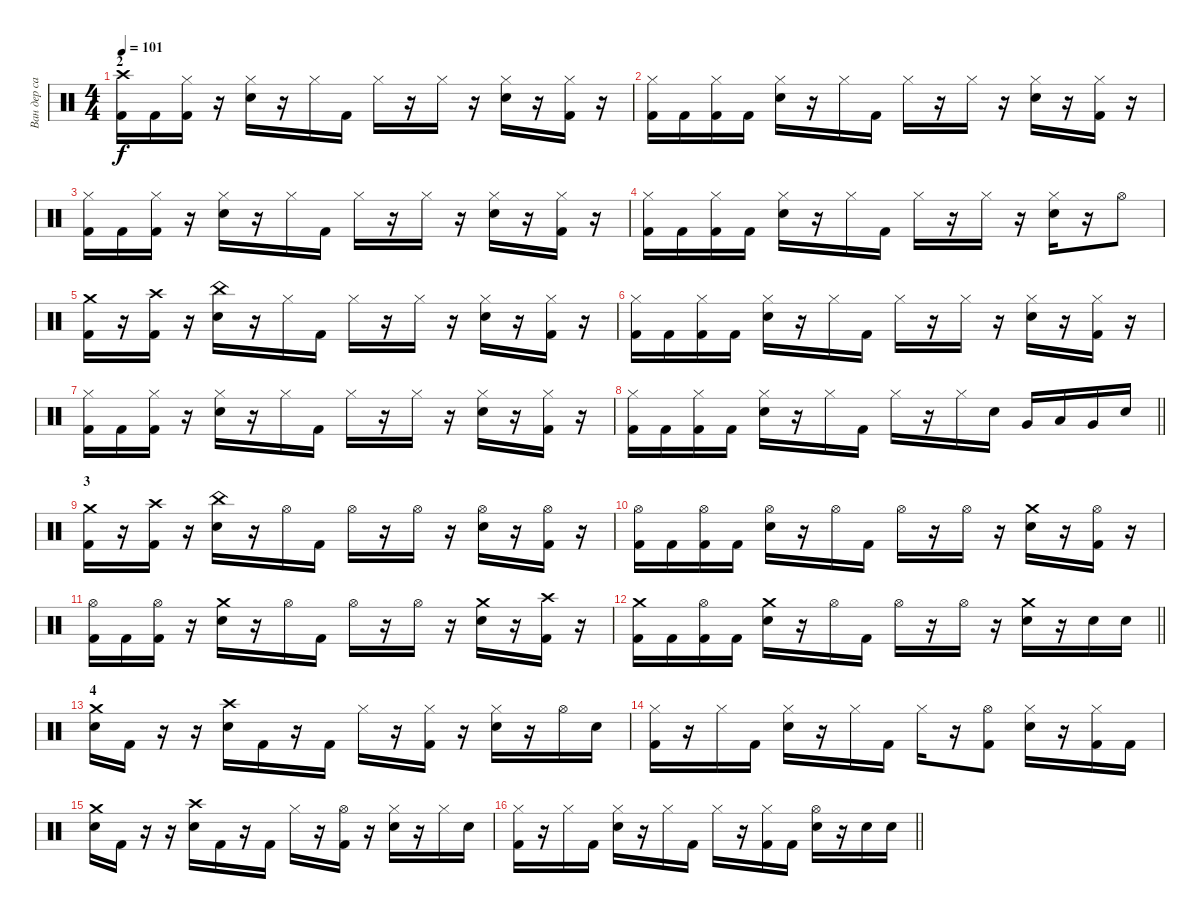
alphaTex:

\track ("Ван дер сар" "Ван дер са") {instrument percussion}
\staff {score}
\articulation defaults
\ts (4 4)
\section ("" "2")
\tempo 101
\clef neutral
\ks c
("Crash high (hit)" "Kick (hit) 2").16{dy f} "Kick (hit) 2".16 ("Hi-Hat (closed)" "Kick (hit) 2").16 r.16 ("Hi-Hat (closed)" "Snare (hit) 2").16 r.16 "Hi-Hat (closed)".16 "Kick (hit) 2".16 "Hi-Hat (closed)".16 r.16 "Hi-Hat (closed)".16 r.16 ("Hi-Hat (closed)" "Snare (hit) 2").16 r.16 ("Hi-Hat (closed)" "Kick (hit) 2").16 r.16 |
("Hi-Hat (closed)" "Kick (hit) 2").16 "Kick (hit) 2".16 ("Hi-Hat (closed)" "Kick (hit) 2").16 "Kick (hit) 2".16 ("Hi-Hat (closed)" "Snare (hit) 2").16 r.16 "Hi-Hat (closed)".16 "Kick (hit) 2".16 "Hi-Hat (closed)".16 r.16 "Hi-Hat (closed)".16 r.16 ("Hi-Hat (closed)" "Snare (hit) 2").16 r.16 ("Hi-Hat (closed)" "Kick (hit) 2").16 r.16 |
("Hi-Hat (closed)" "Kick (hit) 2").16 "Kick (hit) 2".16 ("Hi-Hat (closed)" "Kick (hit) 2").16 r.16 ("Hi-Hat (closed)" "Snare (hit) 2").16 r.16 "Hi-Hat (closed)".16 "Kick (hit) 2".16 "Hi-Hat (closed)".16 r.16 "Hi-Hat (closed)".16 r.16 ("Hi-Hat (closed)" "Snare (hit) 2").16 r.16 ("Hi-Hat (closed)" "Kick (hit) 2").16 r.16 |
("Hi-Hat (closed)" "Kick (hit) 2").16 "Kick (hit) 2".16 ("Hi-Hat (closed)" "Kick (hit) 2").16 "Kick (hit) 2".16 ("Hi-Hat (closed)" "Snare (hit) 2").16 r.16 "Hi-Hat (closed)".16 "Kick (hit) 2".16 "Hi-Hat (closed)".16 r.16 "Hi-Hat (closed)".16 r.16 ("Hi-Hat (closed)" "Snare (hit) 2").16 r.16 "Hi-Hat (open)".8 |
("Crash medium (hit)" "Kick (hit) 2").16 r.16 ("Crash high (hit)" "Kick (hit) 2").16 r.16 ("China (hit)" "Snare (hit) 2").16 r.16 "Hi-Hat (closed)".16 "Kick (hit) 2".16 "Hi-Hat (closed)".16 r.16 "Hi-Hat (closed)".16 r.16 ("Hi-Hat (closed)" "Snare (hit) 2").16 r.16 ("Hi-Hat (closed)" "Kick (hit) 2").16 r.16 |
("Hi-Hat (closed)" "Kick (hit) 2").16 "Kick (hit) 2".16 ("Hi-Hat (closed)" "Kick (hit) 2").16 "Kick (hit) 2".16 ("Hi-Hat (closed)" "Snare (hit) 2").16 r.16 "Hi-Hat (closed)".16 "Kick (hit) 2".16 "Hi-Hat (closed)".16 r.16 "Hi-Hat (closed)".16 r.16 ("Hi-Hat (closed)" "Snare (hit) 2").16 r.16 ("Hi-Hat (closed)" "Kick (hit) 2").16 r.16 |
("Hi-Hat (closed)" "Kick (hit) 2").16 "Kick (hit) 2".16 ("Hi-Hat (closed)" "Kick (hit) 2").16 r.16 ("Hi-Hat (closed)" "Snare (hit) 2").16 r.16 "Hi-Hat (closed)".16 "Kick (hit) 2".16 "Hi-Hat (closed)".16 r.16 "Hi-Hat (closed)".16 r.16 ("Hi-Hat (closed)" "Snare (hit) 2").16 r.16 ("Hi-Hat (closed)" "Kick (hit) 2").16 r.16 |
\barLineRight lightlight
("Hi-Hat (closed)" "Kick (hit) 2").16 "Kick (hit) 2".16 ("Hi-Hat (closed)" "Kick (hit) 2").16 "Kick (hit) 2".16 ("Hi-Hat (closed)" "Snare (hit) 2").16 r.16 "Hi-Hat (closed)".16 "Kick (hit) 2".16 "Hi-Hat (closed)".16 r.16 "Hi-Hat (closed)".16 "Snare (hit) 2".16 "Very Low Tom (hit)".16 "Low Tom (hit)".16 "Very Low Tom (hit)".16 "Snare (hit) 2".16 |
\section ("" "3")
("Crash medium (hit)" "Kick (hit) 2").16 r.16 ("Crash high (hit)" "Kick (hit) 2").16 r.16 ("China (hit)" "Snare (hit) 2").16 r.16 "Hi-Hat (open)".16 "Kick (hit) 2".16 "Hi-Hat (open)".16 r.16 "Hi-Hat (open)".16 r.16 ("Hi-Hat (open)" "Snare (hit) 2").16 r.16 ("Hi-Hat (open)" "Kick (hit) 2").16 r.16 |
("Hi-Hat (open)" "Kick (hit) 2").16 "Kick (hit) 2".16 ("Hi-Hat (open)" "Kick (hit) 2").16 "Kick (hit) 2".16 ("Hi-Hat (open)" "Snare (hit) 2").16 r.16 "Hi-Hat (open)".16 "Kick (hit) 2".16 "Hi-Hat (open)".16 r.16 "Hi-Hat (open)".16 r.16 ("Crash medium (hit)" "Snare (hit) 2").16 r.16 ("Hi-Hat (open)" "Kick (hit) 2").16 r.16 |
("Hi-Hat (open)" "Kick (hit) 2").16 "Kick (hit) 2".16 ("Hi-Hat (open)" "Kick (hit) 2").16 r.16 ("Crash medium (hit)" "Snare (hit) 2").16 r.16 "Hi-Hat (open)".16 "Kick (hit) 2".16 "Hi-Hat (open)".16 r.16 "Hi-Hat (open)".16 r.16 ("Crash medium (hit)" "Snare (hit) 2").16 r.16 ("Crash high (hit)" "Kick (hit) 2").16 r.16 |
\barLineRight lightlight
("Crash medium (hit)" "Kick (hit) 2").16 "Kick (hit) 2".16 ("Hi-Hat (open)" "Kick (hit) 2").16 "Kick (hit) 2".16 ("Crash medium (hit)" "Snare (hit) 2").16 r.16 "Hi-Hat (open)".16 "Kick (hit) 2".16 "Hi-Hat (open)".16 r.16 "Hi-Hat (open)".16 r.16 ("Crash medium (hit)" "Snare (hit) 2").16 r.16 "Snare (hit) 2".16 "Snare (hit) 2".16 |
\section ("" "4")
("Crash medium (hit)" "Snare (hit) 2").16 "Kick (hit) 2".16 r.16 r.16 ("Crash high (hit)" "Snare (hit) 2").16 "Kick (hit) 2".16 r.16 "Kick (hit) 2".16 "Hi-Hat (closed)".16 r.16 ("Hi-Hat (closed)" "Kick (hit) 2").16 r.16 ("Hi-Hat (closed)" "Snare (hit) 2").16 r.16 "Hi-Hat (open)".16 "Snare (hit) 2".16 |
("Hi-Hat (closed)" "Kick (hit) 2").16 r.16 "Hi-Hat (closed)".16 "Kick (hit) 2".16 ("Hi-Hat (closed)" "Snare (hit) 2").16 r.16 "Hi-Hat (closed)".16 "Kick (hit) 2".16 "Hi-Hat (closed)".16 r.16 ("Hi-Hat (open)" "Kick (hit) 2").8 ("Hi-Hat (closed)" "Snare (hit) 2").16 r.16 ("Hi-Hat (closed)" "Kick (hit) 2").16 "Kick (hit) 2".16 |
("Crash medium (hit)" "Snare (hit) 2").16 "Kick (hit) 2".16 r.16 r.16 ("Crash high (hit)" "Snare (hit) 2").16 "Kick (hit) 2".16 r.16 "Kick (hit) 2".16 "Hi-Hat (closed)".16 r.16 ("Hi-Hat (open)" "Kick (hit) 2").16 r.16 ("Hi-Hat (closed)" "Snare (hit) 2").16 r.16 "Hi-Hat (closed)".16 "Snare (hit) 2".16 |
\barLineRight lightlight
("Hi-Hat (closed)" "Kick (hit) 2").16 r.16 "Hi-Hat (closed)".16 "Kick (hit) 2".16 ("Hi-Hat (closed)" "Snare (hit) 2").16 r.16 "Hi-Hat (closed)".16 "Kick (hit) 2".16 "Hi-Hat (closed)".16 r.16 ("Hi-Hat (closed)" "Kick (hit) 2").16 "Kick (hit) 2".16 ("Hi-Hat (open)" "Snare (hit) 2").16 r.16 "Snare (hit) 2".16 "Snare (hit) 2".16
